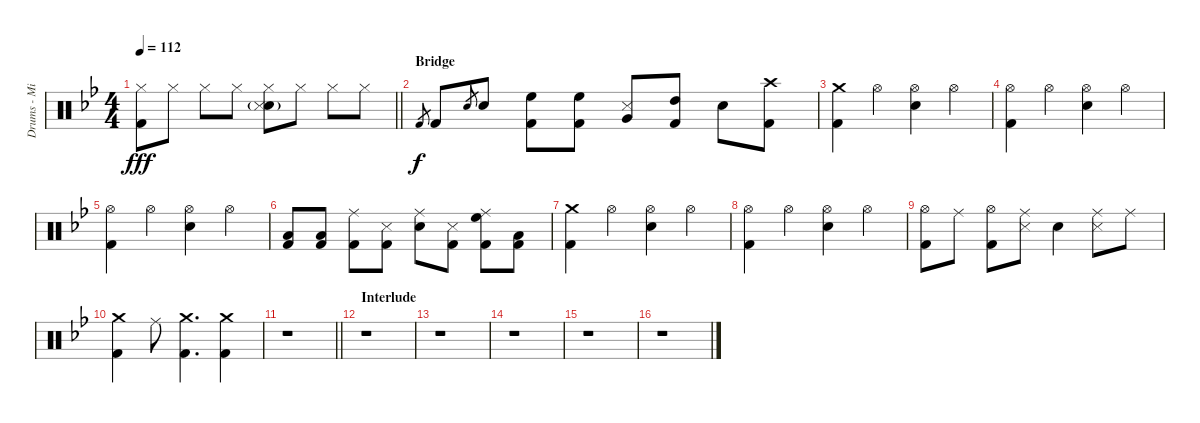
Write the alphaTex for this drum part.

\track ("Drums - Mikko" "Drums - Mi") {instrument percussion}
\staff {score}
\articulation defaults
\ts (4 4)
\tempo 112
\clef neutral
\barLineRight lightlight
\ks bb
("Hi-Hat (closed)" "Kick (hit) 2").8{dy fff} "Hi-Hat (closed)".8 "Hi-Hat (closed)".8 "Hi-Hat (closed)".8 ("Hi-Hat (closed)" "Snare (hit) 2"{g} "Snare (side stick) 3").8 "Hi-Hat (closed)".8 "Hi-Hat (closed)".8 "Hi-Hat (closed)".8 |
\section ("" "Bridge")
"Kick (hit) 2".8{gr dy f} "Kick (hit) 2".8 "Electric Snare (hit)".8{gr} "Electric Snare (hit)".8 ("High Floor Tom (hit)" "Kick (hit) 2").8 ("High Floor Tom (hit)" "Kick (hit) 2").8 ("Very Low Tom (hit)" "Snare (side stick) 3").8 ("High Tom (hit)" "Kick (hit) 2").8 "Electric Snare (hit)".8 ("Crash high (hit)" "Kick (hit) 2").8 |
("Crash medium (hit)" "Kick (hit) 2").4 "Hi-Hat (open)".4 ("Hi-Hat (open)" "Electric Snare (hit)").4 "Hi-Hat (open)".4 |
("Hi-Hat (open)" "Kick (hit) 2").4 "Hi-Hat (open)".4 ("Hi-Hat (open)" "Electric Snare (hit)").4 "Hi-Hat (open)".4 |
("Hi-Hat (open)" "Kick (hit) 2").4 "Hi-Hat (open)".4 ("Hi-Hat (open)" "Electric Snare (hit)").4 "Hi-Hat (open)".4 |
("Low Tom (hit)" "Kick (hit) 2").8 ("Low Tom (hit)" "Kick (hit) 2").8 ("Ride (middle)" "Kick (hit) 2").8 ("Snare (side stick) 3" "Kick (hit) 2").8 ("Ride (middle)" "Electric Snare (hit)").8 ("Snare (side stick) 3" "Kick (hit) 2").8 ("Ride (middle)" "High Floor Tom (hit)" "Kick (hit) 2").8 ("Low Floor Tom (hit)" "Kick (hit) 2").8 |
("Crash medium (hit)" "Kick (hit) 2").4 "Hi-Hat (open)".4 ("Hi-Hat (open)" "Electric Snare (hit)").4 "Hi-Hat (open)".4 |
("Hi-Hat (open)" "Kick (hit) 2").4 "Hi-Hat (open)".4 ("Hi-Hat (open)" "Electric Snare (hit)").4 "Hi-Hat (open)".4 |
("Hi-Hat (open)" "Kick (hit) 2").8 "Ride (middle)".8 ("Hi-Hat (open)" "Kick (hit) 2").8 ("Ride (middle)" "Snare (side stick) 3").8 "Electric Snare (hit)".4 ("Ride (middle)" "Snare (side stick) 3").8 "Ride (middle)".8 |
("Crash medium (hit)" "Kick (hit) 2").4 "Ride (middle)".8 ("Crash medium (hit)" "Kick (hit) 2").4{d} ("Crash medium (hit)" "Kick (hit) 2").4 |
\barLineRight lightlight
r.1 |
\section ("" "Interlude")
r.1 |
r.1 |
r.1 |
r.1 |
r.1
